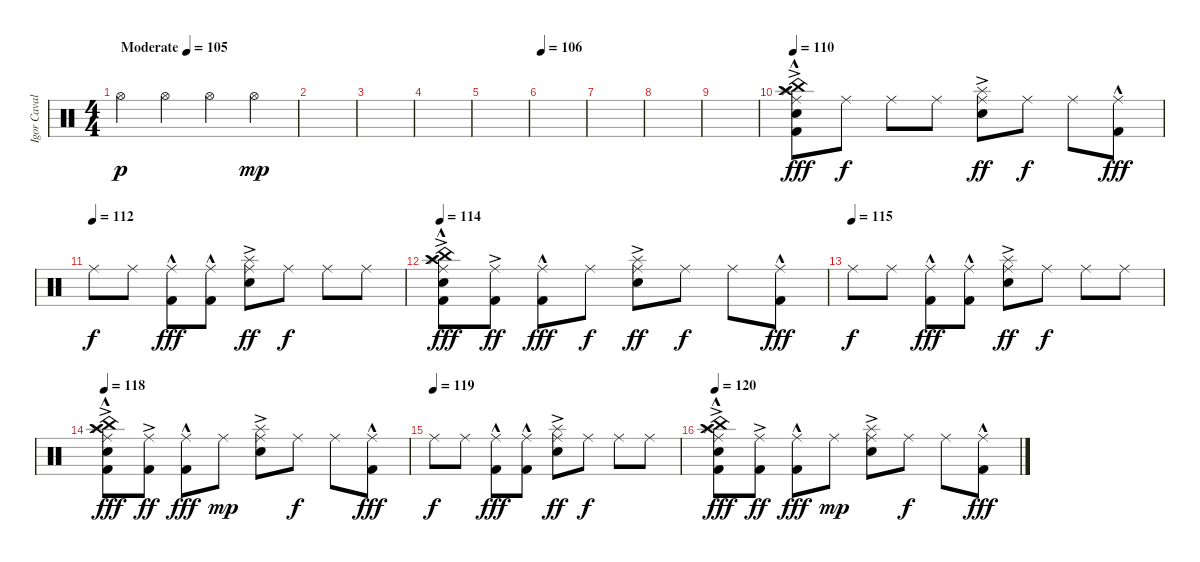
\track ("Igor Cavalera" "Igor Caval") {instrument percussion}
\staff {score}
\articulation defaults
\ts (4 4)
\tempo (105 "Moderate")
\clef neutral
\ks c "Hi-Hat (open)".4{dy p} "Hi-Hat (open)".4 "Hi-Hat (open)".4 "Hi-Hat (open)".4{dy mp}
|
|
|
|
|
\tempo 106
|
|
|
|
\tempo 110
("Crash high (hit)"{ac} "China (hit)"{ac} "Snare (hit) 2"{ac} "Splash (hit)" "Ride (middle)" "Kick (hit) 2"{hac}).8{dy fff} "Ride (middle)".8{dy f} "Ride (middle)".8 "Ride (middle)".8 ("Splash (hit)" "Snare (hit) 2"{ac} "Ride (middle)").8{dy ff} "Ride (middle)".8{dy f} "Ride (middle)".8 ("Ride (middle)" "Kick (hit) 2"{hac}).8{dy fff} |
\tempo (112)
"Ride (middle)".8{dy f} "Ride (middle)".8 ("Ride (middle)" "Kick (hit) 2"{hac}).8{dy fff} ("Ride (middle)" "Kick (hit) 2"{hac}).8 ("Splash (hit)" "Snare (hit) 2"{ac} "Ride (middle)").8{dy ff} "Ride (middle)".8{dy f} "Ride (middle)".8 "Ride (middle)".8 |
\tempo 114
("Crash high (hit)"{ac} "China (hit)"{ac} "Snare (hit) 2"{ac} "Splash (hit)" "Ride (middle)" "Kick (hit) 2"{hac}).8{dy fff} ("Ride (middle)" "Kick (hit) 2"{ac}).8{dy ff} ("Ride (middle)" "Kick (hit) 2"{hac}).8{dy fff} "Ride (middle)".8{dy f} ("Splash (hit)" "Snare (hit) 2"{ac} "Ride (middle)").8{dy ff} "Ride (middle)".8{dy f} "Ride (middle)".8 ("Ride (middle)" "Kick (hit) 2"{hac}).8{dy fff} |
\tempo (115)
"Ride (middle)".8{dy f} "Ride (middle)".8 ("Ride (middle)" "Kick (hit) 2"{hac}).8{dy fff} ("Ride (middle)" "Kick (hit) 2"{hac}).8 ("Splash (hit)" "Snare (hit) 2"{ac} "Ride (middle)").8{dy ff} "Ride (middle)".8{dy f} "Ride (middle)".8 "Ride (middle)".8 |
\tempo 118
("Crash high (hit)"{ac} "China (hit)"{ac} "Snare (hit) 2"{ac} "Splash (hit)" "Ride (middle)" "Kick (hit) 2"{hac}).8{dy fff} ("Ride (middle)" "Kick (hit) 2"{ac}).8{dy ff} ("Ride (middle)" "Kick (hit) 2"{hac}).8{dy fff} "Ride (middle)".8{dy mp} ("Splash (hit)" "Snare (hit) 2"{ac} "Ride (middle)").8 "Ride (middle)".8{dy f} "Ride (middle)".8 ("Ride (middle)" "Kick (hit) 2"{hac}).8{dy fff} |
\tempo (119)
"Ride (middle)".8{dy f} "Ride (middle)".8 ("Ride (middle)" "Kick (hit) 2"{hac}).8{dy fff} ("Ride (middle)" "Kick (hit) 2"{hac}).8 ("Splash (hit)" "Snare (hit) 2"{ac} "Ride (middle)").8{dy ff} "Ride (middle)".8{dy f} "Ride (middle)".8 "Ride (middle)".8 |
\tempo 120
("Crash high (hit)"{ac} "China (hit)"{ac} "Snare (hit) 2"{ac} "Splash (hit)" "Ride (middle)" "Kick (hit) 2"{hac}).8{dy fff} ("Ride (middle)" "Kick (hit) 2"{ac}).8{dy ff} ("Ride (middle)" "Kick (hit) 2"{hac}).8{dy fff} "Ride (middle)".8{dy mp} ("Splash (hit)" "Snare (hit) 2"{ac} "Ride (middle)").8 "Ride (middle)".8{dy f} "Ride (middle)".8 ("Ride (middle)" "Kick (hit) 2"{hac}).8{dy fff}
